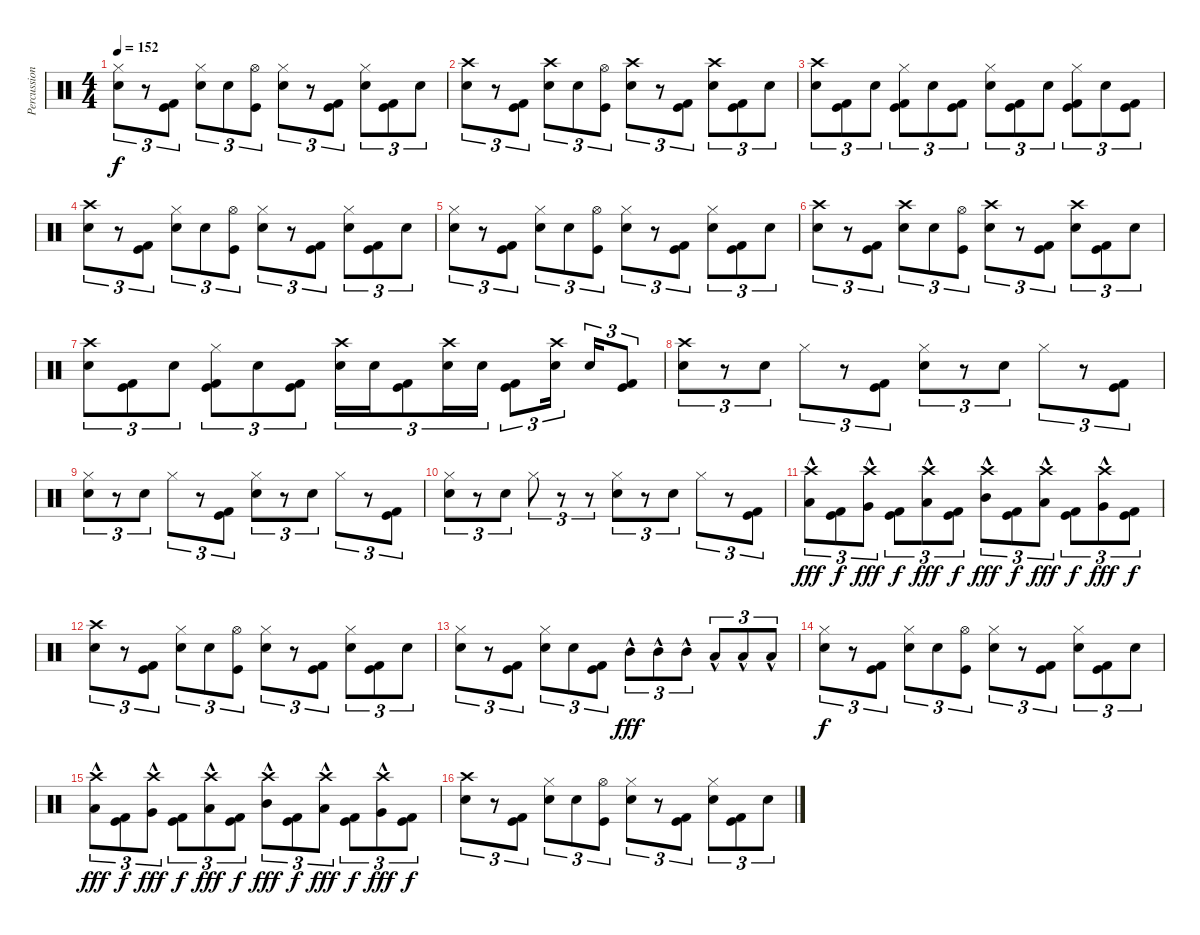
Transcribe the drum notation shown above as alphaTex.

\track ("Percussion" "Percussion") {instrument percussion}
\staff {score}
\articulation defaults
\ts (4 4)
\tempo 152
\clef neutral
\ks c
("Hi-Hat (closed)" "Electric Snare (hit)").8{tu (3 2) dy f} r.8{tu (3 2)} ("Kick (hit) 2" "Kick (hit)").8{tu (3 2)} ("Hi-Hat (closed)" "Electric Snare (hit)").8{tu (3 2)} "Electric Snare (hit)".8{tu (3 2)} ("Hi-Hat (open)" "Kick (hit)").8{tu (3 2)} ("Hi-Hat (closed)" "Electric Snare (hit)").8{tu (3 2)} r.8{tu (3 2)} ("Kick (hit) 2" "Kick (hit)").8{tu (3 2)} ("Hi-Hat (closed)" "Electric Snare (hit)").8{tu (3 2)} ("Kick (hit) 2" "Kick (hit)").8{tu (3 2)} "Electric Snare (hit)".8{tu (3 2)} |
("Crash high (hit)" "Electric Snare (hit)").8{tu (3 2)} r.8{tu (3 2)} ("Kick (hit) 2" "Kick (hit)").8{tu (3 2)} ("Crash high (hit)" "Electric Snare (hit)").8{tu (3 2)} "Electric Snare (hit)".8{tu (3 2)} ("Hi-Hat (open)" "Kick (hit)").8{tu (3 2)} ("Crash high (hit)" "Electric Snare (hit)").8{tu (3 2)} r.8{tu (3 2)} ("Kick (hit) 2" "Kick (hit)").8{tu (3 2)} ("Crash high (hit)" "Electric Snare (hit)").8{tu (3 2)} ("Kick (hit) 2" "Kick (hit)").8{tu (3 2)} "Electric Snare (hit)".8{tu (3 2)} |
("Crash high (hit)" "Electric Snare (hit)").8{tu (3 2)} ("Kick (hit) 2" "Kick (hit)").8{tu (3 2)} "Electric Snare (hit)".8{tu (3 2)} ("Hi-Hat (closed)" "Kick (hit) 2" "Kick (hit)").8{tu (3 2)} "Electric Snare (hit)".8{tu (3 2)} ("Kick (hit) 2" "Kick (hit)").8{tu (3 2)} ("Hi-Hat (closed)" "Electric Snare (hit)").8{tu (3 2)} ("Kick (hit) 2" "Kick (hit)").8{tu (3 2)} "Electric Snare (hit)".8{tu (3 2)} ("Hi-Hat (closed)" "Kick (hit) 2" "Kick (hit)").8{tu (3 2)} "Electric Snare (hit)".8{tu (3 2)} ("Kick (hit) 2" "Kick (hit)").8{tu (3 2)} |
("Crash high (hit)" "Electric Snare (hit)").8{tu (3 2)} r.8{tu (3 2)} ("Kick (hit) 2" "Kick (hit)").8{tu (3 2)} ("Hi-Hat (closed)" "Electric Snare (hit)").8{tu (3 2)} "Electric Snare (hit)".8{tu (3 2)} ("Hi-Hat (open)" "Kick (hit)").8{tu (3 2)} ("Hi-Hat (closed)" "Electric Snare (hit)").8{tu (3 2)} r.8{tu (3 2)} ("Kick (hit) 2" "Kick (hit)").8{tu (3 2)} ("Hi-Hat (closed)" "Electric Snare (hit)").8{tu (3 2)} ("Kick (hit) 2" "Kick (hit)").8{tu (3 2)} "Electric Snare (hit)".8{tu (3 2)} |
("Hi-Hat (closed)" "Electric Snare (hit)").8{tu (3 2)} r.8{tu (3 2)} ("Kick (hit) 2" "Kick (hit)").8{tu (3 2)} ("Hi-Hat (closed)" "Electric Snare (hit)").8{tu (3 2)} "Electric Snare (hit)".8{tu (3 2)} ("Hi-Hat (open)" "Kick (hit)").8{tu (3 2)} ("Hi-Hat (closed)" "Electric Snare (hit)").8{tu (3 2)} r.8{tu (3 2)} ("Kick (hit) 2" "Kick (hit)").8{tu (3 2)} ("Hi-Hat (closed)" "Electric Snare (hit)").8{tu (3 2)} ("Kick (hit) 2" "Kick (hit)").8{tu (3 2)} "Electric Snare (hit)".8{tu (3 2)} |
("Crash high (hit)" "Electric Snare (hit)").8{tu (3 2)} r.8{tu (3 2)} ("Kick (hit) 2" "Kick (hit)").8{tu (3 2)} ("Crash high (hit)" "Electric Snare (hit)").8{tu (3 2)} "Electric Snare (hit)".8{tu (3 2)} ("Hi-Hat (open)" "Kick (hit)").8{tu (3 2)} ("Crash high (hit)" "Electric Snare (hit)").8{tu (3 2)} r.8{tu (3 2)} ("Kick (hit) 2" "Kick (hit)").8{tu (3 2)} ("Crash high (hit)" "Electric Snare (hit)").8{tu (3 2)} ("Kick (hit) 2" "Kick (hit)").8{tu (3 2)} "Electric Snare (hit)".8{tu (3 2)} |
("Crash high (hit)" "Electric Snare (hit)").8{tu (3 2)} ("Kick (hit) 2" "Kick (hit)").8{tu (3 2)} "Electric Snare (hit)".8{tu (3 2)} ("Hi-Hat (closed)" "Kick (hit) 2" "Kick (hit)").8{tu (3 2)} "Electric Snare (hit)".8{tu (3 2)} ("Kick (hit) 2" "Kick (hit)").8{tu (3 2)} ("Crash high (hit)" "Electric Snare (hit)").16{tu (3 2)} "Electric Snare (hit)".16{tu (3 2)} ("Kick (hit) 2" "Kick (hit)").8{tu (3 2)} ("Crash high (hit)" "Electric Snare (hit)").16{tu (3 2)} "Electric Snare (hit)".16{tu (3 2)} ("Kick (hit) 2" "Kick (hit)").8{tu (3 2)} ("Crash high (hit)" "Electric Snare (hit)").16{tu (3 2) beam splitsecondary} "Electric Snare (hit)".16{tu (3 2)} ("Kick (hit) 2" "Kick (hit)").8{tu (3 2)} |
("Crash high (hit)" "Electric Snare (hit)").8{tu (3 2)} r.8{tu (3 2)} "Electric Snare (hit)".8{tu (3 2)} "Hi-Hat (closed)".8{tu (3 2)} r.8{tu (3 2)} ("Kick (hit) 2" "Kick (hit)").8{tu (3 2)} ("Hi-Hat (closed)" "Electric Snare (hit)").8{tu (3 2)} r.8{tu (3 2)} "Electric Snare (hit)".8{tu (3 2)} "Hi-Hat (closed)".8{tu (3 2)} r.8{tu (3 2)} ("Kick (hit) 2" "Kick (hit)").8{tu (3 2)} |
("Hi-Hat (closed)" "Electric Snare (hit)").8{tu (3 2)} r.8{tu (3 2)} "Electric Snare (hit)".8{tu (3 2)} "Hi-Hat (closed)".8{tu (3 2)} r.8{tu (3 2)} ("Kick (hit) 2" "Kick (hit)").8{tu (3 2)} ("Hi-Hat (closed)" "Electric Snare (hit)").8{tu (3 2)} r.8{tu (3 2)} "Electric Snare (hit)".8{tu (3 2)} "Hi-Hat (closed)".8{tu (3 2)} r.8{tu (3 2)} ("Kick (hit) 2" "Kick (hit)").8{tu (3 2)} |
("Hi-Hat (closed)" "Electric Snare (hit)").8{tu (3 2)} r.8{tu (3 2)} "Electric Snare (hit)".8{tu (3 2)} "Hi-Hat (closed)".8{tu (3 2)} r.8{tu (3 2)} r.8{tu (3 2)} ("Hi-Hat (closed)" "Electric Snare (hit)").8{tu (3 2)} r.8{tu (3 2)} "Electric Snare (hit)".8{tu (3 2)} "Hi-Hat (closed)".8{tu (3 2)} r.8{tu (3 2)} ("Kick (hit)" "Kick (hit) 2").8{tu (3 2)} |
("Crash high (hit)" "Low Floor Tom (hit)"{hac}).8{tu (3 2) dy fff} ("Kick (hit) 2" "Kick (hit)").8{tu (3 2) dy f} ("Crash high (hit)" "Very Low Tom (hit)"{hac}).8{tu (3 2) dy fff} ("Kick (hit) 2" "Kick (hit)").8{tu (3 2) dy f} ("Crash high (hit)" "Low Tom (hit)"{hac}).8{tu (3 2) dy fff} ("Kick (hit) 2" "Kick (hit)").8{tu (3 2) dy f} ("Crash high (hit)" "Mid Tom (hit)"{hac}).8{tu (3 2) dy fff} ("Kick (hit) 2" "Kick (hit)").8{tu (3 2) dy f} ("Crash high (hit)" "Low Tom (hit)"{hac}).8{tu (3 2) dy fff} ("Kick (hit) 2" "Kick (hit)").8{tu (3 2) dy f} ("Crash high (hit)" "Very Low Tom (hit)"{hac}).8{tu (3 2) dy fff} ("Kick (hit) 2" "Kick (hit)").8{tu (3 2) dy f} |
("Crash high (hit)" "Electric Snare (hit)").8{tu (3 2)} r.8{tu (3 2)} ("Kick (hit) 2" "Kick (hit)").8{tu (3 2)} ("Hi-Hat (closed)" "Electric Snare (hit)").8{tu (3 2)} "Electric Snare (hit)".8{tu (3 2)} ("Hi-Hat (open)" "Kick (hit)").8{tu (3 2)} ("Hi-Hat (closed)" "Electric Snare (hit)").8{tu (3 2)} r.8{tu (3 2)} ("Kick (hit) 2" "Kick (hit)").8{tu (3 2)} ("Hi-Hat (closed)" "Electric Snare (hit)").8{tu (3 2)} ("Kick (hit) 2" "Kick (hit)").8{tu (3 2)} "Electric Snare (hit)".8{tu (3 2)} |
("Hi-Hat (closed)" "Electric Snare (hit)").8{tu (3 2)} r.8{tu (3 2)} ("Kick (hit) 2" "Kick (hit)").8{tu (3 2)} ("Hi-Hat (closed)" "Electric Snare (hit)").8{tu (3 2)} "Electric Snare (hit)".8{tu (3 2)} ("Kick (hit) 2" "Kick (hit)").8{tu (3 2)} "Mid Tom (hit)"{hac}.8{tu (3 2) dy fff} "Mid Tom (hit)"{hac}.8{tu (3 2)} "Mid Tom (hit)"{hac}.8{tu (3 2)} "Low Tom (hit)"{hac}.8{tu (3 2)} "Low Tom (hit)"{hac}.8{tu (3 2)} "Low Tom (hit)"{hac}.8{tu (3 2)} |
("Hi-Hat (closed)" "Electric Snare (hit)").8{tu (3 2) dy f} r.8{tu (3 2)} ("Kick (hit) 2" "Kick (hit)").8{tu (3 2)} ("Hi-Hat (closed)" "Electric Snare (hit)").8{tu (3 2)} "Electric Snare (hit)".8{tu (3 2)} ("Hi-Hat (open)" "Kick (hit)").8{tu (3 2)} ("Hi-Hat (closed)" "Electric Snare (hit)").8{tu (3 2)} r.8{tu (3 2)} ("Kick (hit) 2" "Kick (hit)").8{tu (3 2)} ("Hi-Hat (closed)" "Electric Snare (hit)").8{tu (3 2)} ("Kick (hit) 2" "Kick (hit)").8{tu (3 2)} "Electric Snare (hit)".8{tu (3 2)} |
("Crash high (hit)" "Low Floor Tom (hit)"{hac}).8{tu (3 2) dy fff} ("Kick (hit) 2" "Kick (hit)").8{tu (3 2) dy f} ("Crash high (hit)" "Very Low Tom (hit)"{hac}).8{tu (3 2) dy fff} ("Kick (hit) 2" "Kick (hit)").8{tu (3 2) dy f} ("Crash high (hit)" "Low Tom (hit)"{hac}).8{tu (3 2) dy fff} ("Kick (hit) 2" "Kick (hit)").8{tu (3 2) dy f} ("Crash high (hit)" "Mid Tom (hit)"{hac}).8{tu (3 2) dy fff} ("Kick (hit) 2" "Kick (hit)").8{tu (3 2) dy f} ("Crash high (hit)" "Low Tom (hit)"{hac}).8{tu (3 2) dy fff} ("Kick (hit) 2" "Kick (hit)").8{tu (3 2) dy f} ("Crash high (hit)" "Very Low Tom (hit)"{hac}).8{tu (3 2) dy fff} ("Kick (hit) 2" "Kick (hit)").8{tu (3 2) dy f} |
("Crash high (hit)" "Electric Snare (hit)").8{tu (3 2)} r.8{tu (3 2)} ("Kick (hit) 2" "Kick (hit)").8{tu (3 2)} ("Hi-Hat (closed)" "Electric Snare (hit)").8{tu (3 2)} "Electric Snare (hit)".8{tu (3 2)} ("Hi-Hat (open)" "Kick (hit)").8{tu (3 2)} ("Hi-Hat (closed)" "Electric Snare (hit)").8{tu (3 2)} r.8{tu (3 2)} ("Kick (hit) 2" "Kick (hit)").8{tu (3 2)} ("Hi-Hat (closed)" "Electric Snare (hit)").8{tu (3 2)} ("Kick (hit) 2" "Kick (hit)").8{tu (3 2)} "Electric Snare (hit)".8{tu (3 2)}
